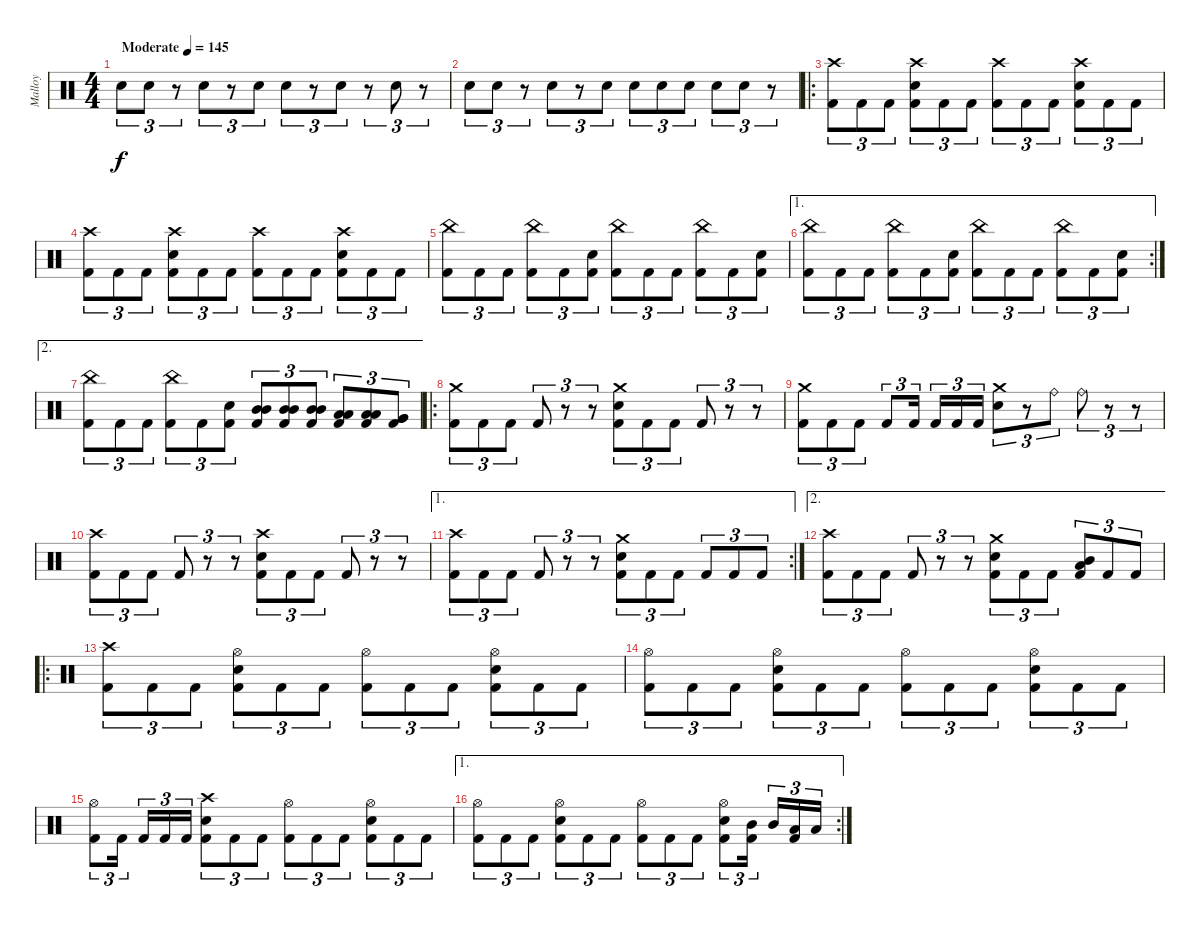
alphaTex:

\track ("Malloy" "Malloy") {instrument percussion}
\staff {score}
\articulation defaults
\ts (4 4)
\tempo (145 "Moderate")
\clef neutral
\ks c "Electric Snare (hit)".8{tu (3 2) dy f} "Electric Snare (hit)".8{tu (3 2)}
r.8{tu (3 2)} "Electric Snare (hit)".8{tu (3 2)} r.8{tu (3 2)} "Electric Snare (hit)".8{tu (3 2)} "Electric Snare (hit)".8{tu (3 2)} r.8{tu (3 2)} "Electric Snare (hit)".8{tu (3 2)} r.8{tu (3 2)} "Electric Snare (hit)".8{tu (3 2)} r.8{tu (3 2)} |
"Electric Snare (hit)".8{tu (3 2)} "Electric Snare (hit)".8{tu (3 2)} r.8{tu (3 2)} "Electric Snare (hit)".8{tu (3 2)} r.8{tu (3 2)} "Electric Snare (hit)".8{tu (3 2)} "Electric Snare (hit)".8{tu (3 2)} "Electric Snare (hit)".8{tu (3 2)} "Electric Snare (hit)".8{tu (3 2)} "Electric Snare (hit)".8{tu (3 2)} "Electric Snare (hit)".8{tu (3 2)} r.8{tu (3 2)} |
\ro
("Kick (hit) 2" "Crash high (hit)").8{tu (3 2)} "Kick (hit) 2".8{tu (3 2)} "Kick (hit) 2".8{tu (3 2)} ("Kick (hit) 2" "Electric Snare (hit)" "Crash high (hit)").8{tu (3 2)} "Kick (hit) 2".8{tu (3 2)} "Kick (hit) 2".8{tu (3 2)} ("Kick (hit) 2" "Crash high (hit)").8{tu (3 2)} "Kick (hit) 2".8{tu (3 2)} "Kick (hit) 2".8{tu (3 2)} ("Kick (hit) 2" "Electric Snare (hit)" "Crash high (hit)").8{tu (3 2)} "Kick (hit) 2".8{tu (3 2)} "Kick (hit) 2".8{tu (3 2)} |
("Kick (hit) 2" "Crash high (hit)").8{tu (3 2)} "Kick (hit) 2".8{tu (3 2)} "Kick (hit) 2".8{tu (3 2)} ("Kick (hit) 2" "Electric Snare (hit)" "Crash high (hit)").8{tu (3 2)} "Kick (hit) 2".8{tu (3 2)} "Kick (hit) 2".8{tu (3 2)} ("Kick (hit) 2" "Crash high (hit)").8{tu (3 2)} "Kick (hit) 2".8{tu (3 2)} "Kick (hit) 2".8{tu (3 2)} ("Kick (hit) 2" "Electric Snare (hit)" "Crash high (hit)").8{tu (3 2)} "Kick (hit) 2".8{tu (3 2)} "Kick (hit) 2".8{tu (3 2)} |
("Kick (hit) 2" "China (hit)").8{tu (3 2)} "Kick (hit) 2".8{tu (3 2)} "Kick (hit) 2".8{tu (3 2)} ("Kick (hit) 2" "China (hit)").8{tu (3 2)} "Kick (hit) 2".8{tu (3 2)} ("Kick (hit) 2" "Electric Snare (hit)").8{tu (3 2)} ("Kick (hit) 2" "China (hit)").8{tu (3 2)} "Kick (hit) 2".8{tu (3 2)} "Kick (hit) 2".8{tu (3 2)} ("Kick (hit) 2" "China (hit)").8{tu (3 2)} "Kick (hit) 2".8{tu (3 2)} ("Kick (hit) 2" "Electric Snare (hit)").8{tu (3 2)} |
\ae 1
\rc 2
("Kick (hit) 2" "China (hit)").8{tu (3 2)} "Kick (hit) 2".8{tu (3 2)} "Kick (hit) 2".8{tu (3 2)} ("Kick (hit) 2" "China (hit)").8{tu (3 2)} "Kick (hit) 2".8{tu (3 2)} ("Kick (hit) 2" "Electric Snare (hit)").8{tu (3 2)} ("Kick (hit) 2" "China (hit)").8{tu (3 2)} "Kick (hit) 2".8{tu (3 2)} "Kick (hit) 2".8{tu (3 2)} ("Kick (hit) 2" "China (hit)").8{tu (3 2)} "Kick (hit) 2".8{tu (3 2)} ("Kick (hit) 2" "Electric Snare (hit)").8{tu (3 2)} |
\ae 2
("Kick (hit) 2" "China (hit)").8{tu (3 2)} "Kick (hit) 2".8{tu (3 2)} "Kick (hit) 2".8{tu (3 2)} ("Kick (hit) 2" "China (hit)").8{tu (3 2)} "Kick (hit) 2".8{tu (3 2)} ("Kick (hit) 2" "Electric Snare (hit)").8{tu (3 2)} ("Kick (hit) 2" "Mid Tom (hit)" "Mid Tom (hit)").8{tu (3 2)} ("Kick (hit) 2" "Mid Tom (hit)" "Mid Tom (hit)").8{tu (3 2)} ("Kick (hit) 2" "Mid Tom (hit)" "Mid Tom (hit)").8{tu (3 2)} ("Kick (hit) 2" "Low Tom (hit)" "Low Tom (hit)").8{tu (3 2)} ("Kick (hit) 2" "Low Tom (hit)" "Low Tom (hit)").8{tu (3 2)} ("Kick (hit) 2" "Very Low Tom (hit)" "Very Low Tom (hit)").8{tu (3 2)} |
\ro
("Kick (hit) 2" "Crash medium (hit)").8{tu (3 2)} "Kick (hit) 2".8{tu (3 2)} "Kick (hit) 2".8{tu (3 2)} "Kick (hit) 2".8{tu (3 2)} r.8{tu (3 2)} r.8{tu (3 2)} ("Kick (hit) 2" "Electric Snare (hit)" "Crash medium (hit)").8{tu (3 2)} "Kick (hit) 2".8{tu (3 2)} "Kick (hit) 2".8{tu (3 2)} "Kick (hit) 2".8{tu (3 2)} r.8{tu (3 2)} r.8{tu (3 2)} |
("Kick (hit) 2" "Crash medium (hit)").8{tu (3 2)} "Kick (hit) 2".8{tu (3 2)} "Kick (hit) 2".8{tu (3 2)} "Kick (hit) 2".8{tu (3 2)} "Kick (hit) 2".16{tu (3 2) beam splitsecondary} "Kick (hit) 2".16{tu (3 2)} "Kick (hit) 2".16{tu (3 2)} "Kick (hit) 2".16{tu (3 2)} ("Electric Snare (hit)" "Crash medium (hit)").8{tu (3 2)} r.8{tu (3 2)} "Ride (bell)".8{tu (3 2)} "Ride (bell)".8{tu (3 2)} r.8{tu (3 2)} r.8{tu (3 2)} |
("Kick (hit) 2" "Crash high (hit)").8{tu (3 2)} "Kick (hit) 2".8{tu (3 2)} "Kick (hit) 2".8{tu (3 2)} "Kick (hit) 2".8{tu (3 2)} r.8{tu (3 2)} r.8{tu (3 2)} ("Kick (hit) 2" "Electric Snare (hit)" "Crash high (hit)").8{tu (3 2)} "Kick (hit) 2".8{tu (3 2)} "Kick (hit) 2".8{tu (3 2)} "Kick (hit) 2".8{tu (3 2)} r.8{tu (3 2)} r.8{tu (3 2)} |
\ae 1
\rc 2
("Kick (hit) 2" "Crash high (hit)").8{tu (3 2)} "Kick (hit) 2".8{tu (3 2)} "Kick (hit) 2".8{tu (3 2)} "Kick (hit) 2".8{tu (3 2)} r.8{tu (3 2)} r.8{tu (3 2)} ("Kick (hit) 2" "Electric Snare (hit)" "Crash medium (hit)").8{tu (3 2)} "Kick (hit) 2".8{tu (3 2)} "Kick (hit) 2".8{tu (3 2)} "Kick (hit) 2".8{tu (3 2)} "Kick (hit) 2".8{tu (3 2)} "Kick (hit) 2".8{tu (3 2)} |
\ae 2
("Kick (hit) 2" "Crash high (hit)").8{tu (3 2)} "Kick (hit) 2".8{tu (3 2)} "Kick (hit) 2".8{tu (3 2)} "Kick (hit) 2".8{tu (3 2)} r.8{tu (3 2)} r.8{tu (3 2)} ("Kick (hit) 2" "Electric Snare (hit)" "Crash medium (hit)").8{tu (3 2)} "Kick (hit) 2".8{tu (3 2)} "Kick (hit) 2".8{tu (3 2)} ("Kick (hit) 2" "Mid Tom (hit)" "Low Floor Tom (hit)").8{tu (3 2)} "Kick (hit) 2".8{tu (3 2)} "Kick (hit) 2".8{tu (3 2)} |
\ro
("Kick (hit) 2" "Crash high (hit)").8{tu (3 2)} "Kick (hit) 2".8{tu (3 2)} "Kick (hit) 2".8{tu (3 2)} ("Kick (hit) 2" "Electric Snare (hit)" "Hi-Hat (open)").8{tu (3 2)} "Kick (hit) 2".8{tu (3 2)} "Kick (hit) 2".8{tu (3 2)} ("Kick (hit) 2" "Hi-Hat (open)").8{tu (3 2)} "Kick (hit) 2".8{tu (3 2)} "Kick (hit) 2".8{tu (3 2)} ("Kick (hit) 2" "Electric Snare (hit)" "Hi-Hat (open)").8{tu (3 2)} "Kick (hit) 2".8{tu (3 2)} "Kick (hit) 2".8{tu (3 2)} |
("Kick (hit) 2" "Hi-Hat (open)").8{tu (3 2)} "Kick (hit) 2".8{tu (3 2)} "Kick (hit) 2".8{tu (3 2)} ("Kick (hit) 2" "Electric Snare (hit)" "Hi-Hat (open)").8{tu (3 2)} "Kick (hit) 2".8{tu (3 2)} "Kick (hit) 2".8{tu (3 2)} ("Kick (hit) 2" "Hi-Hat (open)").8{tu (3 2)} "Kick (hit) 2".8{tu (3 2)} "Kick (hit) 2".8{tu (3 2)} ("Kick (hit) 2" "Electric Snare (hit)" "Hi-Hat (open)").8{tu (3 2)} "Kick (hit) 2".8{tu (3 2)} "Kick (hit) 2".8{tu (3 2)} |
("Kick (hit) 2" "Hi-Hat (open)").8{tu (3 2)} "Kick (hit) 2".16{tu (3 2) beam splitsecondary} "Kick (hit) 2".16{tu (3 2)} "Kick (hit) 2".16{tu (3 2)} "Kick (hit) 2".16{tu (3 2)} ("Kick (hit) 2" "Electric Snare (hit)" "Crash high (hit)").8{tu (3 2)} "Kick (hit) 2".8{tu (3 2)} "Kick (hit) 2".8{tu (3 2)} ("Kick (hit) 2" "Hi-Hat (open)").8{tu (3 2)} "Kick (hit) 2".8{tu (3 2)} "Kick (hit) 2".8{tu (3 2)} ("Kick (hit) 2" "Electric Snare (hit)" "Hi-Hat (open)").8{tu (3 2)} "Kick (hit) 2".8{tu (3 2)} "Kick (hit) 2".8{tu (3 2)} |
\ae 1
\rc 2
("Kick (hit) 2" "Hi-Hat (open)").8{tu (3 2)} "Kick (hit) 2".8{tu (3 2)} "Kick (hit) 2".8{tu (3 2)} ("Kick (hit) 2" "Electric Snare (hit)" "Hi-Hat (open)").8{tu (3 2)} "Kick (hit) 2".8{tu (3 2)} "Kick (hit) 2".8{tu (3 2)} ("Kick (hit) 2" "Hi-Hat (open)").8{tu (3 2)} "Kick (hit) 2".8{tu (3 2)} "Kick (hit) 2".8{tu (3 2)} ("Kick (hit) 2" "Electric Snare (hit)" "Hi-Hat (open)").8{tu (3 2)} ("Kick (hit) 2" "Mid Tom (hit)").16{tu (3 2) beam splitsecondary} "Mid Tom (hit)".16{tu (3 2)} ("Kick (hit) 2" "Low Tom (hit)").16{tu (3 2)} "Low Tom (hit)".16{tu (3 2)}
